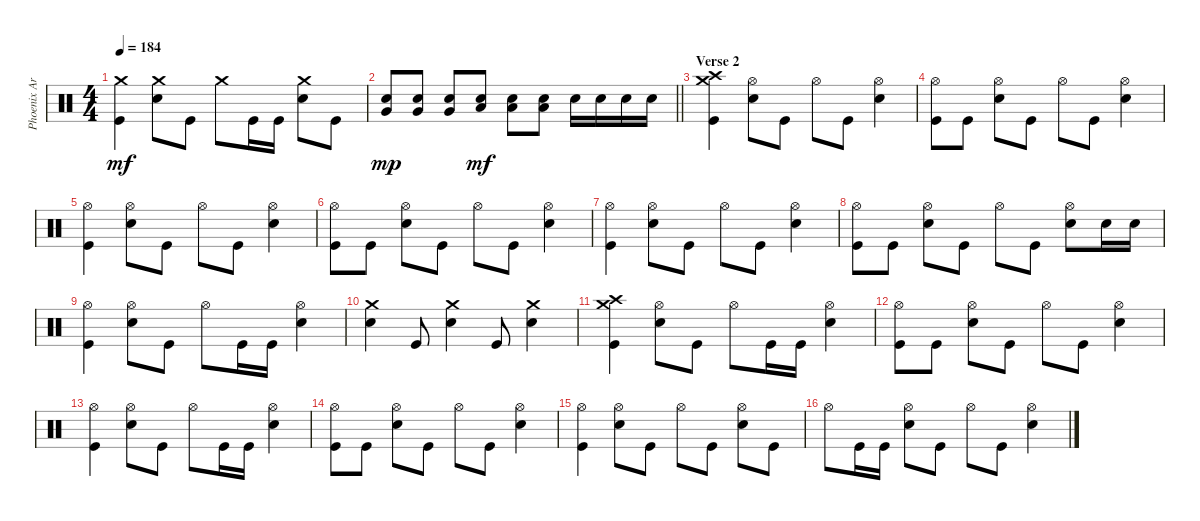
\track ("Phoenix Arn-Horn (Drums)" "Phoenix Ar") {instrument percussion}
\staff {score}
\articulation defaults
\ts (4 4)
\tempo 184
\clef neutral
\ks c
("Kick (hit)" "Crash medium (hit)").4{dy mf} ("Snare (hit) 2" "Crash medium (hit)").8 "Kick (hit)".8 "Crash medium (hit)".8 "Kick (hit)".16 "Kick (hit)".16 ("Snare (hit) 2" "Crash medium (hit)").8 "Kick (hit)".8 |
\barLineRight lightlight
("Snare (hit) 2" "Very Low Tom (hit)").8{dy mp} ("Snare (hit) 2" "Very Low Tom (hit)").8 ("Snare (hit) 2" "Very Low Tom (hit)").8 ("Snare (hit) 2" "Low Floor Tom (hit)").8{dy mf} ("Snare (hit) 2" "Low Floor Tom (hit)").8 ("Snare (hit) 2" "Low Floor Tom (hit)").8 "Snare (hit) 2".16 "Snare (hit) 2".16 "Snare (hit) 2".16 "Snare (hit) 2".16 |
\section ("" "Verse 2")
("Kick (hit)" "Crash high (hit)" "Crash medium (hit)").4 ("Snare (hit) 2" "Hi-Hat (open)").8 "Kick (hit)".8 "Hi-Hat (open)".8 "Kick (hit)".8 ("Snare (hit) 2" "Hi-Hat (open)").4 |
("Kick (hit)" "Hi-Hat (open)").8 "Kick (hit)".8 ("Snare (hit) 2" "Hi-Hat (open)").8 "Kick (hit)".8 "Hi-Hat (open)".8 "Kick (hit)".8 ("Snare (hit) 2" "Hi-Hat (open)").4 |
("Kick (hit)" "Hi-Hat (open)").4 ("Snare (hit) 2" "Hi-Hat (open)").8 "Kick (hit)".8 "Hi-Hat (open)".8 "Kick (hit)".8 ("Snare (hit) 2" "Hi-Hat (open)").4 |
("Kick (hit)" "Hi-Hat (open)").8 "Kick (hit)".8 ("Snare (hit) 2" "Hi-Hat (open)").8 "Kick (hit)".8 "Hi-Hat (open)".8 "Kick (hit)".8 ("Snare (hit) 2" "Hi-Hat (open)").4 |
("Kick (hit)" "Hi-Hat (open)").4 ("Snare (hit) 2" "Hi-Hat (open)").8 "Kick (hit)".8 "Hi-Hat (open)".8 "Kick (hit)".8 ("Snare (hit) 2" "Hi-Hat (open)").4 |
("Kick (hit)" "Hi-Hat (open)").8 "Kick (hit)".8 ("Snare (hit) 2" "Hi-Hat (open)").8 "Kick (hit)".8 "Hi-Hat (open)".8 "Kick (hit)".8 ("Snare (hit) 2" "Hi-Hat (open)").8 "Snare (hit) 2".16 "Snare (hit) 2".16 |
("Kick (hit)" "Hi-Hat (open)").4 ("Snare (hit) 2" "Hi-Hat (open)").8 "Kick (hit)".8 "Hi-Hat (open)".8 "Kick (hit)".16 "Kick (hit)".16 ("Snare (hit) 2" "Hi-Hat (open)").4 |
("Snare (hit) 2" "Crash medium (hit)").4 "Kick (hit)".8 ("Snare (hit) 2" "Crash medium (hit)").4 "Kick (hit)".8 ("Snare (hit) 2" "Crash medium (hit)").4 |
("Kick (hit)" "Crash high (hit)" "Crash medium (hit)").4 ("Snare (hit) 2" "Hi-Hat (open)").8 "Kick (hit)".8 "Hi-Hat (open)".8 "Kick (hit)".16 "Kick (hit)".16 ("Snare (hit) 2" "Hi-Hat (open)").4 |
("Kick (hit)" "Hi-Hat (open)").8 "Kick (hit)".8 ("Snare (hit) 2" "Hi-Hat (open)").8 "Kick (hit)".8 "Hi-Hat (open)".8 "Kick (hit)".8 ("Snare (hit) 2" "Hi-Hat (open)").4 |
("Kick (hit)" "Hi-Hat (open)").4 ("Snare (hit) 2" "Hi-Hat (open)").8 "Kick (hit)".8 "Hi-Hat (open)".8 "Kick (hit)".16 "Kick (hit)".16 ("Snare (hit) 2" "Hi-Hat (open)").4 |
("Kick (hit)" "Hi-Hat (open)").8 "Kick (hit)".8 ("Snare (hit) 2" "Hi-Hat (open)").8 "Kick (hit)".8 "Hi-Hat (open)".8 "Kick (hit)".8 ("Snare (hit) 2" "Hi-Hat (open)").4 |
("Kick (hit)" "Hi-Hat (open)").4 ("Snare (hit) 2" "Hi-Hat (open)").8 "Kick (hit)".8 "Hi-Hat (open)".8 "Kick (hit)".8 ("Snare (hit) 2" "Hi-Hat (open)").8 "Kick (hit)".8 |
"Hi-Hat (open)".8 "Kick (hit)".16 "Kick (hit)".16 ("Snare (hit) 2" "Hi-Hat (open)").8 "Kick (hit)".8 "Hi-Hat (open)".8 "Kick (hit)".8 ("Snare (hit) 2" "Hi-Hat (open)").4
